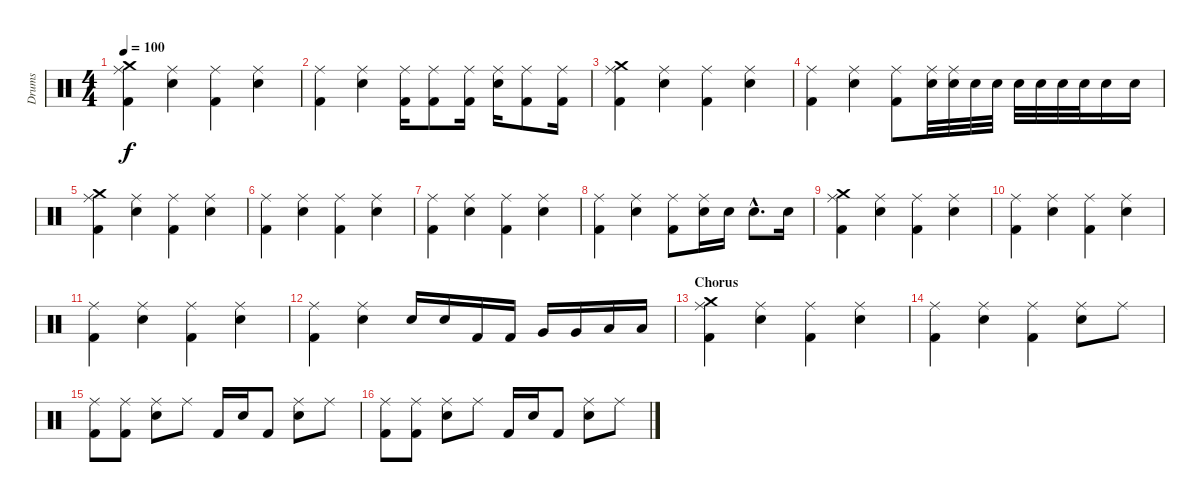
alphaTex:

\track ("Drums" "Drums") {instrument percussion}
\staff {score}
\articulation defaults
\ts (4 4)
\tempo 100
\clef neutral
\ks c
("Kick (hit) 2" "Ride (middle)" "Crash medium (hit)").4{dy f} ("Snare (hit) 2" "Ride (middle)").4 ("Kick (hit) 2" "Ride (middle)").4 ("Snare (hit) 2" "Ride (middle)").4 |
("Kick (hit) 2" "Ride (middle)").4 ("Snare (hit) 2" "Ride (middle)").4 ("Kick (hit) 2" "Ride (middle)").16 ("Kick (hit) 2" "Ride (middle)").8 ("Kick (hit) 2" "Ride (middle)").16 ("Snare (hit) 2" "Ride (middle)").16 ("Kick (hit) 2" "Ride (middle)").8 ("Kick (hit) 2" "Ride (middle)").16 |
("Kick (hit) 2" "Ride (middle)" "Crash medium (hit)").4 ("Snare (hit) 2" "Ride (middle)").4 ("Kick (hit) 2" "Ride (middle)").4 ("Snare (hit) 2" "Ride (middle)").4 |
("Kick (hit) 2" "Ride (middle)").4 ("Snare (hit) 2" "Ride (middle)").4 ("Kick (hit) 2" "Ride (middle)").8 ("Snare (hit) 2" "Ride (middle)").32 ("Snare (hit) 2" "Ride (middle)").32 "Snare (hit) 2".32 "Snare (hit) 2".32 "Snare (hit) 2".32 "Snare (hit) 2".32 "Snare (hit) 2".32 "Snare (hit) 2".32 "Snare (hit) 2".16 "Snare (hit) 2".16 |
("Kick (hit) 2" "Ride (middle)" "Crash medium (hit)").4 ("Snare (hit) 2" "Ride (middle)").4 ("Kick (hit) 2" "Ride (middle)").4 ("Snare (hit) 2" "Ride (middle)").4 |
("Kick (hit) 2" "Ride (middle)").4 ("Snare (hit) 2" "Ride (middle)").4 ("Kick (hit) 2" "Ride (middle)").4 ("Snare (hit) 2" "Ride (middle)").4 |
("Kick (hit) 2" "Ride (middle)").4 ("Snare (hit) 2" "Ride (middle)").4 ("Kick (hit) 2" "Ride (middle)").4 ("Snare (hit) 2" "Ride (middle)").4 |
("Kick (hit) 2" "Ride (middle)").4 ("Snare (hit) 2" "Ride (middle)").4 ("Kick (hit) 2" "Ride (middle)").8 ("Snare (hit) 2" "Ride (middle)").16 "Snare (hit) 2".16 "Snare (hit) 2"{hac}.8{d} "Snare (hit) 2".16 |
("Kick (hit) 2" "Ride (middle)" "Crash medium (hit)").4 ("Snare (hit) 2" "Ride (middle)").4 ("Kick (hit) 2" "Ride (middle)").4 ("Snare (hit) 2" "Ride (middle)").4 |
("Kick (hit) 2" "Ride (middle)").4 ("Snare (hit) 2" "Ride (middle)").4 ("Kick (hit) 2" "Ride (middle)").4 ("Snare (hit) 2" "Ride (middle)").4 |
("Kick (hit) 2" "Ride (middle)").4 ("Snare (hit) 2" "Ride (middle)").4 ("Kick (hit) 2" "Ride (middle)").4 ("Snare (hit) 2" "Ride (middle)").4 |
("Kick (hit) 2" "Ride (middle)").4 ("Snare (hit) 2" "Ride (middle)").4 "Snare (hit) 2".16 "Snare (hit) 2".16 "Kick (hit) 2".16 "Kick (hit) 2".16 "Very Low Tom (hit)".16 "Very Low Tom (hit)".16 "Low Tom (hit)".16 "Low Tom (hit)".16 |
\section ("" "Chorus")
("Kick (hit) 2" "Ride (middle)" "Crash medium (hit)").4 ("Snare (hit) 2" "Ride (middle)").4 ("Kick (hit) 2" "Ride (middle)").4 ("Snare (hit) 2" "Ride (middle)").4 |
("Kick (hit) 2" "Ride (middle)").4 ("Snare (hit) 2" "Ride (middle)").4 ("Kick (hit) 2" "Ride (middle)").4 ("Snare (hit) 2" "Ride (middle)").8 "Ride (middle)".8 |
("Kick (hit) 2" "Ride (middle)").8 ("Kick (hit) 2" "Ride (middle)").8 ("Snare (hit) 2" "Ride (middle)").8 "Ride (middle)".8 "Kick (hit) 2".16 "Snare (hit) 2".16 "Kick (hit) 2".8 ("Snare (hit) 2" "Ride (middle)").8 "Ride (middle)".8 |
("Kick (hit) 2" "Ride (middle)").8 ("Kick (hit) 2" "Ride (middle)").8 ("Snare (hit) 2" "Ride (middle)").8 "Ride (middle)".8 "Kick (hit) 2".16 "Snare (hit) 2".16 "Kick (hit) 2".8 ("Snare (hit) 2" "Ride (middle)").8 "Ride (middle)".8
